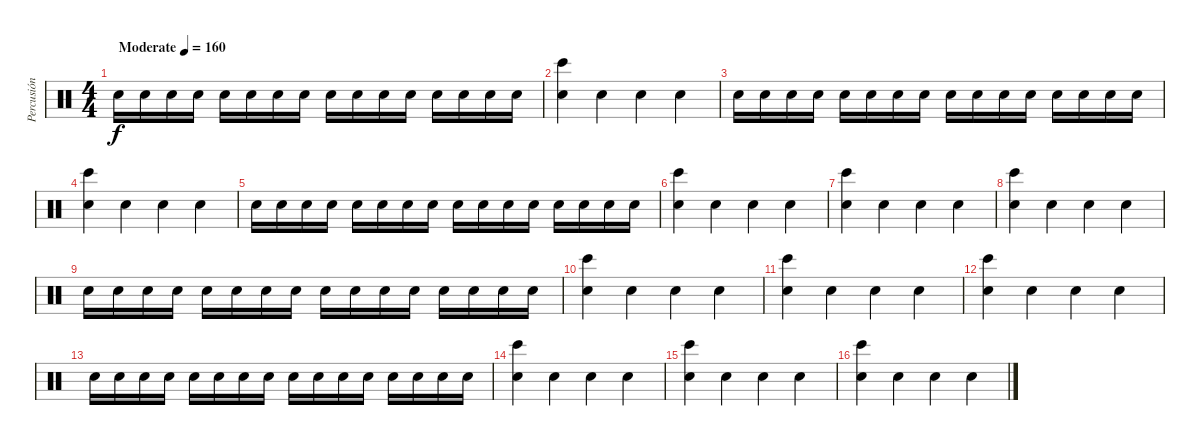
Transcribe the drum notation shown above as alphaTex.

\track ("Percusión" "Percusión") {instrument percussion}
\staff {score}
\articulation defaults
\ts (4 4)
\tempo (160 "Moderate")
\clef neutral
\ks c "Electric Snare (hit)".16{dy f} "Electric Snare (hit)".16 "Electric Snare (hit)".16 "Electric Snare (hit)".16 "Electric Snare (hit)".16 "Electric Snare (hit)".16 "Electric Snare (hit)".16 "Electric Snare (hit)".16 "Electric Snare (hit)".16 "Electric Snare (hit)".16 "Electric Snare (hit)".16 "Electric Snare (hit)".16 "Electric Snare (hit)".16 "Electric Snare (hit)".16 "Electric Snare (hit)".16 "Electric Snare (hit)".16
|
("Electric Snare (hit)" "Bongo High (hit)").4 "Electric Snare (hit)".4 "Electric Snare (hit)".4 "Electric Snare (hit)".4 |
"Electric Snare (hit)".16 "Electric Snare (hit)".16 "Electric Snare (hit)".16 "Electric Snare (hit)".16 "Electric Snare (hit)".16 "Electric Snare (hit)".16 "Electric Snare (hit)".16 "Electric Snare (hit)".16 "Electric Snare (hit)".16 "Electric Snare (hit)".16 "Electric Snare (hit)".16 "Electric Snare (hit)".16 "Electric Snare (hit)".16 "Electric Snare (hit)".16 "Electric Snare (hit)".16 "Electric Snare (hit)".16 |
("Electric Snare (hit)" "Bongo High (hit)").4 "Electric Snare (hit)".4 "Electric Snare (hit)".4 "Electric Snare (hit)".4 |
"Electric Snare (hit)".16 "Electric Snare (hit)".16 "Electric Snare (hit)".16 "Electric Snare (hit)".16 "Electric Snare (hit)".16 "Electric Snare (hit)".16 "Electric Snare (hit)".16 "Electric Snare (hit)".16 "Electric Snare (hit)".16 "Electric Snare (hit)".16 "Electric Snare (hit)".16 "Electric Snare (hit)".16 "Electric Snare (hit)".16 "Electric Snare (hit)".16 "Electric Snare (hit)".16 "Electric Snare (hit)".16 |
("Electric Snare (hit)" "Bongo High (hit)").4 "Electric Snare (hit)".4 "Electric Snare (hit)".4 "Electric Snare (hit)".4 |
("Electric Snare (hit)" "Bongo High (hit)").4 "Electric Snare (hit)".4 "Electric Snare (hit)".4 "Electric Snare (hit)".4 |
("Electric Snare (hit)" "Bongo High (hit)").4 "Electric Snare (hit)".4 "Electric Snare (hit)".4 "Electric Snare (hit)".4 |
"Electric Snare (hit)".16 "Electric Snare (hit)".16 "Electric Snare (hit)".16 "Electric Snare (hit)".16 "Electric Snare (hit)".16 "Electric Snare (hit)".16 "Electric Snare (hit)".16 "Electric Snare (hit)".16 "Electric Snare (hit)".16 "Electric Snare (hit)".16 "Electric Snare (hit)".16 "Electric Snare (hit)".16 "Electric Snare (hit)".16 "Electric Snare (hit)".16 "Electric Snare (hit)".16 "Electric Snare (hit)".16 |
("Electric Snare (hit)" "Bongo High (hit)").4 "Electric Snare (hit)".4 "Electric Snare (hit)".4 "Electric Snare (hit)".4 |
("Electric Snare (hit)" "Bongo High (hit)").4 "Electric Snare (hit)".4 "Electric Snare (hit)".4 "Electric Snare (hit)".4 |
("Electric Snare (hit)" "Bongo High (hit)").4 "Electric Snare (hit)".4 "Electric Snare (hit)".4 "Electric Snare (hit)".4 |
"Electric Snare (hit)".16 "Electric Snare (hit)".16 "Electric Snare (hit)".16 "Electric Snare (hit)".16 "Electric Snare (hit)".16 "Electric Snare (hit)".16 "Electric Snare (hit)".16 "Electric Snare (hit)".16 "Electric Snare (hit)".16 "Electric Snare (hit)".16 "Electric Snare (hit)".16 "Electric Snare (hit)".16 "Electric Snare (hit)".16 "Electric Snare (hit)".16 "Electric Snare (hit)".16 "Electric Snare (hit)".16 |
("Electric Snare (hit)" "Bongo High (hit)").4 "Electric Snare (hit)".4 "Electric Snare (hit)".4 "Electric Snare (hit)".4 |
("Electric Snare (hit)" "Bongo High (hit)").4 "Electric Snare (hit)".4 "Electric Snare (hit)".4 "Electric Snare (hit)".4 |
("Electric Snare (hit)" "Bongo High (hit)").4 "Electric Snare (hit)".4 "Electric Snare (hit)".4 "Electric Snare (hit)".4
